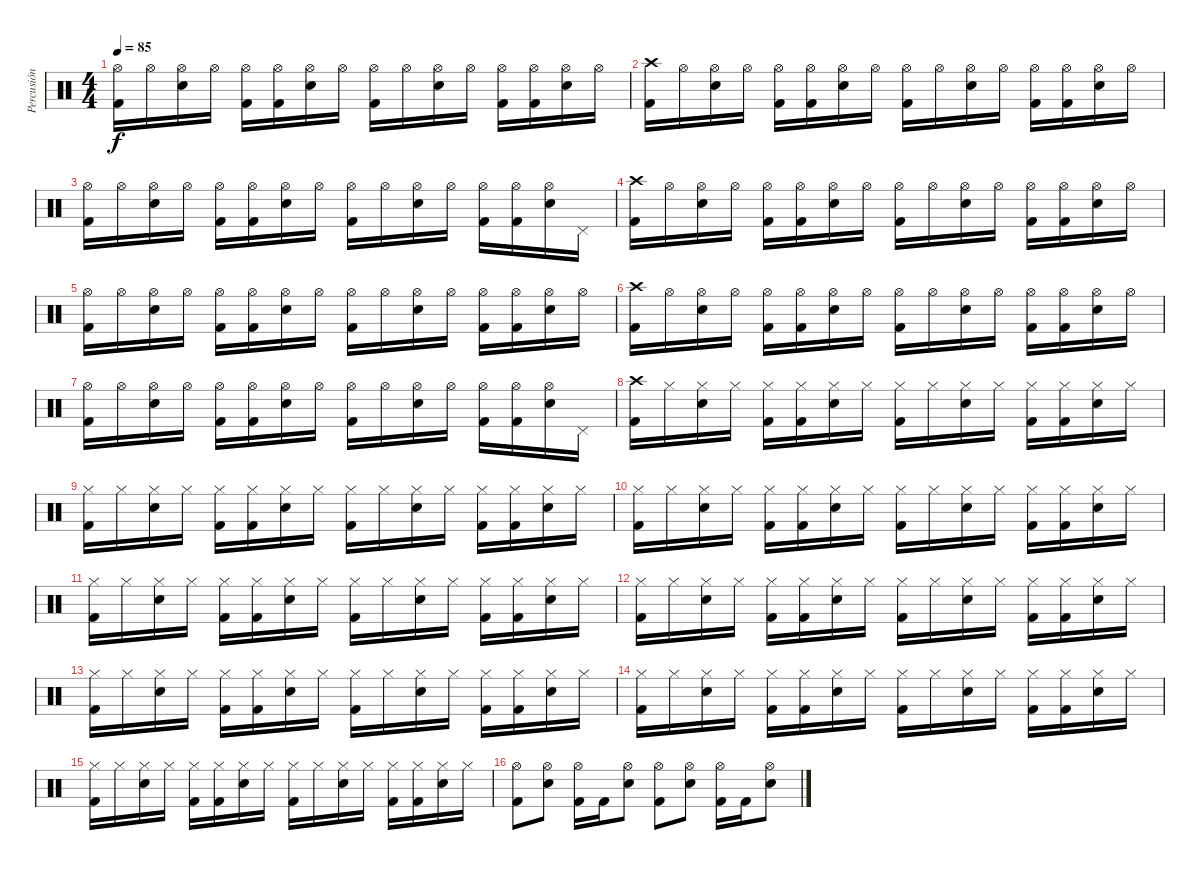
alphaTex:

\track ("Percusión" "Percusión") {instrument percussion}
\staff {score}
\articulation defaults
\ts (4 4)
\tempo 85
\clef neutral
\ks c
("Hi-Hat (open)" "Kick (hit) 2").16{dy f} "Hi-Hat (open)".16 ("Hi-Hat (open)" "Electric Snare (hit)").16 "Hi-Hat (open)".16 ("Hi-Hat (open)" "Kick (hit) 2").16 ("Hi-Hat (open)" "Kick (hit) 2").16 ("Hi-Hat (open)" "Electric Snare (hit)").16 "Hi-Hat (open)".16 ("Hi-Hat (open)" "Kick (hit) 2").16 "Hi-Hat (open)".16 ("Hi-Hat (open)" "Electric Snare (hit)").16 "Hi-Hat (open)".16 ("Hi-Hat (open)" "Kick (hit) 2").16 ("Hi-Hat (open)" "Kick (hit) 2").16 ("Hi-Hat (open)" "Electric Snare (hit)").16 "Hi-Hat (open)".16 |
("Crash high (hit)" "Kick (hit) 2").16 "Hi-Hat (open)".16 ("Hi-Hat (open)" "Electric Snare (hit)").16 "Hi-Hat (open)".16 ("Hi-Hat (open)" "Kick (hit) 2").16 ("Hi-Hat (open)" "Kick (hit) 2").16 ("Hi-Hat (open)" "Electric Snare (hit)").16 "Hi-Hat (open)".16 ("Hi-Hat (open)" "Kick (hit) 2").16 "Hi-Hat (open)".16 ("Hi-Hat (open)" "Electric Snare (hit)").16 "Hi-Hat (open)".16 ("Hi-Hat (open)" "Kick (hit) 2").16 ("Hi-Hat (open)" "Kick (hit) 2").16 ("Hi-Hat (open)" "Electric Snare (hit)").16 "Hi-Hat (open)".16 |
("Hi-Hat (open)" "Kick (hit) 2").16 "Hi-Hat (open)".16 ("Hi-Hat (open)" "Electric Snare (hit)").16 "Hi-Hat (open)".16 ("Hi-Hat (open)" "Kick (hit) 2").16 ("Hi-Hat (open)" "Kick (hit) 2").16 ("Hi-Hat (open)" "Electric Snare (hit)").16 "Hi-Hat (open)".16 ("Hi-Hat (open)" "Kick (hit) 2").16 "Hi-Hat (open)".16 ("Hi-Hat (open)" "Electric Snare (hit)").16 "Hi-Hat (open)".16 ("Hi-Hat (open)" "Kick (hit) 2").16 ("Hi-Hat (open)" "Kick (hit) 2").16 ("Hi-Hat (open)" "Electric Snare (hit)").16 "Pedal Hi-Hat (hit)".16 |
("Crash high (hit)" "Kick (hit) 2").16 "Hi-Hat (open)".16 ("Hi-Hat (open)" "Electric Snare (hit)").16 "Hi-Hat (open)".16 ("Hi-Hat (open)" "Kick (hit) 2").16 ("Hi-Hat (open)" "Kick (hit) 2").16 ("Hi-Hat (open)" "Electric Snare (hit)").16 "Hi-Hat (open)".16 ("Hi-Hat (open)" "Kick (hit) 2").16 "Hi-Hat (open)".16 ("Hi-Hat (open)" "Electric Snare (hit)").16 "Hi-Hat (open)".16 ("Hi-Hat (open)" "Kick (hit) 2").16 ("Hi-Hat (open)" "Kick (hit) 2").16 ("Hi-Hat (open)" "Electric Snare (hit)").16 "Hi-Hat (open)".16 |
("Hi-Hat (open)" "Kick (hit) 2").16 "Hi-Hat (open)".16 ("Hi-Hat (open)" "Electric Snare (hit)").16 "Hi-Hat (open)".16 ("Hi-Hat (open)" "Kick (hit) 2").16 ("Hi-Hat (open)" "Kick (hit) 2").16 ("Hi-Hat (open)" "Electric Snare (hit)").16 "Hi-Hat (open)".16 ("Hi-Hat (open)" "Kick (hit) 2").16 "Hi-Hat (open)".16 ("Hi-Hat (open)" "Electric Snare (hit)").16 "Hi-Hat (open)".16 ("Hi-Hat (open)" "Kick (hit) 2").16 ("Hi-Hat (open)" "Kick (hit) 2").16 ("Hi-Hat (open)" "Electric Snare (hit)").16 "Hi-Hat (open)".16 |
("Crash high (hit)" "Kick (hit) 2").16 "Hi-Hat (open)".16 ("Hi-Hat (open)" "Electric Snare (hit)").16 "Hi-Hat (open)".16 ("Hi-Hat (open)" "Kick (hit) 2").16 ("Hi-Hat (open)" "Kick (hit) 2").16 ("Hi-Hat (open)" "Electric Snare (hit)").16 "Hi-Hat (open)".16 ("Hi-Hat (open)" "Kick (hit) 2").16 "Hi-Hat (open)".16 ("Hi-Hat (open)" "Electric Snare (hit)").16 "Hi-Hat (open)".16 ("Hi-Hat (open)" "Kick (hit) 2").16 ("Hi-Hat (open)" "Kick (hit) 2").16 ("Hi-Hat (open)" "Electric Snare (hit)").16 "Hi-Hat (open)".16 |
("Hi-Hat (open)" "Kick (hit) 2").16 "Hi-Hat (open)".16 ("Hi-Hat (open)" "Electric Snare (hit)").16 "Hi-Hat (open)".16 ("Hi-Hat (open)" "Kick (hit) 2").16 ("Hi-Hat (open)" "Kick (hit) 2").16 ("Hi-Hat (open)" "Electric Snare (hit)").16 "Hi-Hat (open)".16 ("Hi-Hat (open)" "Kick (hit) 2").16 "Hi-Hat (open)".16 ("Hi-Hat (open)" "Electric Snare (hit)").16 "Hi-Hat (open)".16 ("Hi-Hat (open)" "Kick (hit) 2").16 ("Hi-Hat (open)" "Kick (hit) 2").16 ("Hi-Hat (open)" "Electric Snare (hit)").16 "Pedal Hi-Hat (hit)".16 |
("Crash high (hit)" "Kick (hit) 2").16 "Hi-Hat (closed)".16 ("Hi-Hat (closed)" "Electric Snare (hit)").16 "Hi-Hat (closed)".16 ("Hi-Hat (closed)" "Kick (hit) 2").16 ("Hi-Hat (closed)" "Kick (hit) 2").16 ("Hi-Hat (closed)" "Electric Snare (hit)").16 "Hi-Hat (closed)".16 ("Hi-Hat (closed)" "Kick (hit) 2").16 "Hi-Hat (closed)".16 ("Hi-Hat (closed)" "Electric Snare (hit)").16 "Hi-Hat (closed)".16 ("Hi-Hat (closed)" "Kick (hit) 2").16 ("Hi-Hat (closed)" "Kick (hit) 2").16 ("Hi-Hat (closed)" "Electric Snare (hit)").16 "Hi-Hat (closed)".16 |
("Hi-Hat (closed)" "Kick (hit) 2").16 "Hi-Hat (closed)".16 ("Hi-Hat (closed)" "Electric Snare (hit)").16 "Hi-Hat (closed)".16 ("Hi-Hat (closed)" "Kick (hit) 2").16 ("Hi-Hat (closed)" "Kick (hit) 2").16 ("Hi-Hat (closed)" "Electric Snare (hit)").16 "Hi-Hat (closed)".16 ("Hi-Hat (closed)" "Kick (hit) 2").16 "Hi-Hat (closed)".16 ("Hi-Hat (closed)" "Electric Snare (hit)").16 "Hi-Hat (closed)".16 ("Hi-Hat (closed)" "Kick (hit) 2").16 ("Hi-Hat (closed)" "Kick (hit) 2").16 ("Hi-Hat (closed)" "Electric Snare (hit)").16 "Hi-Hat (closed)".16 |
("Hi-Hat (closed)" "Kick (hit) 2").16 "Hi-Hat (closed)".16 ("Hi-Hat (closed)" "Electric Snare (hit)").16 "Hi-Hat (closed)".16 ("Hi-Hat (closed)" "Kick (hit) 2").16 ("Hi-Hat (closed)" "Kick (hit) 2").16 ("Hi-Hat (closed)" "Electric Snare (hit)").16 "Hi-Hat (closed)".16 ("Hi-Hat (closed)" "Kick (hit) 2").16 "Hi-Hat (closed)".16 ("Hi-Hat (closed)" "Electric Snare (hit)").16 "Hi-Hat (closed)".16 ("Hi-Hat (closed)" "Kick (hit) 2").16 ("Hi-Hat (closed)" "Kick (hit) 2").16 ("Hi-Hat (closed)" "Electric Snare (hit)").16 "Hi-Hat (closed)".16 |
("Hi-Hat (closed)" "Kick (hit) 2").16 "Hi-Hat (closed)".16 ("Hi-Hat (closed)" "Electric Snare (hit)").16 "Hi-Hat (closed)".16 ("Hi-Hat (closed)" "Kick (hit) 2").16 ("Hi-Hat (closed)" "Kick (hit) 2").16 ("Hi-Hat (closed)" "Electric Snare (hit)").16 "Hi-Hat (closed)".16 ("Hi-Hat (closed)" "Kick (hit) 2").16 "Hi-Hat (closed)".16 ("Hi-Hat (closed)" "Electric Snare (hit)").16 "Hi-Hat (closed)".16 ("Hi-Hat (closed)" "Kick (hit) 2").16 ("Hi-Hat (closed)" "Kick (hit) 2").16 ("Hi-Hat (closed)" "Electric Snare (hit)").16 "Hi-Hat (closed)".16 |
("Hi-Hat (closed)" "Kick (hit) 2").16 "Hi-Hat (closed)".16 ("Hi-Hat (closed)" "Electric Snare (hit)").16 "Hi-Hat (closed)".16 ("Hi-Hat (closed)" "Kick (hit) 2").16 ("Hi-Hat (closed)" "Kick (hit) 2").16 ("Hi-Hat (closed)" "Electric Snare (hit)").16 "Hi-Hat (closed)".16 ("Hi-Hat (closed)" "Kick (hit) 2").16 "Hi-Hat (closed)".16 ("Hi-Hat (closed)" "Electric Snare (hit)").16 "Hi-Hat (closed)".16 ("Hi-Hat (closed)" "Kick (hit) 2").16 ("Hi-Hat (closed)" "Kick (hit) 2").16 ("Hi-Hat (closed)" "Electric Snare (hit)").16 "Hi-Hat (closed)".16 |
("Hi-Hat (closed)" "Kick (hit) 2").16 "Hi-Hat (closed)".16 ("Hi-Hat (closed)" "Electric Snare (hit)").16 "Hi-Hat (closed)".16 ("Hi-Hat (closed)" "Kick (hit) 2").16 ("Hi-Hat (closed)" "Kick (hit) 2").16 ("Hi-Hat (closed)" "Electric Snare (hit)").16 "Hi-Hat (closed)".16 ("Hi-Hat (closed)" "Kick (hit) 2").16 "Hi-Hat (closed)".16 ("Hi-Hat (closed)" "Electric Snare (hit)").16 "Hi-Hat (closed)".16 ("Hi-Hat (closed)" "Kick (hit) 2").16 ("Hi-Hat (closed)" "Kick (hit) 2").16 ("Hi-Hat (closed)" "Electric Snare (hit)").16 "Hi-Hat (closed)".16 |
("Hi-Hat (closed)" "Kick (hit) 2").16 "Hi-Hat (closed)".16 ("Hi-Hat (closed)" "Electric Snare (hit)").16 "Hi-Hat (closed)".16 ("Hi-Hat (closed)" "Kick (hit) 2").16 ("Hi-Hat (closed)" "Kick (hit) 2").16 ("Hi-Hat (closed)" "Electric Snare (hit)").16 "Hi-Hat (closed)".16 ("Hi-Hat (closed)" "Kick (hit) 2").16 "Hi-Hat (closed)".16 ("Hi-Hat (closed)" "Electric Snare (hit)").16 "Hi-Hat (closed)".16 ("Hi-Hat (closed)" "Kick (hit) 2").16 ("Hi-Hat (closed)" "Kick (hit) 2").16 ("Hi-Hat (closed)" "Electric Snare (hit)").16 "Hi-Hat (closed)".16 |
("Hi-Hat (closed)" "Kick (hit) 2").16 "Hi-Hat (closed)".16 ("Hi-Hat (closed)" "Electric Snare (hit)").16 "Hi-Hat (closed)".16 ("Hi-Hat (closed)" "Kick (hit) 2").16 ("Hi-Hat (closed)" "Kick (hit) 2").16 ("Hi-Hat (closed)" "Electric Snare (hit)").16 "Hi-Hat (closed)".16 ("Hi-Hat (closed)" "Kick (hit) 2").16 "Hi-Hat (closed)".16 ("Hi-Hat (closed)" "Electric Snare (hit)").16 "Hi-Hat (closed)".16 ("Hi-Hat (closed)" "Kick (hit) 2").16 ("Hi-Hat (closed)" "Kick (hit) 2").16 ("Hi-Hat (closed)" "Electric Snare (hit)").16 "Hi-Hat (closed)".16 |
("Hi-Hat (open)" "Kick (hit) 2").8 ("Hi-Hat (open)" "Electric Snare (hit)").8 ("Hi-Hat (open)" "Kick (hit) 2").16 "Kick (hit) 2".16 ("Hi-Hat (open)" "Electric Snare (hit)").8 ("Hi-Hat (open)" "Kick (hit) 2").8 ("Hi-Hat (open)" "Electric Snare (hit)").8 ("Hi-Hat (open)" "Kick (hit) 2").16 "Kick (hit) 2".16 ("Hi-Hat (open)" "Electric Snare (hit)").8
